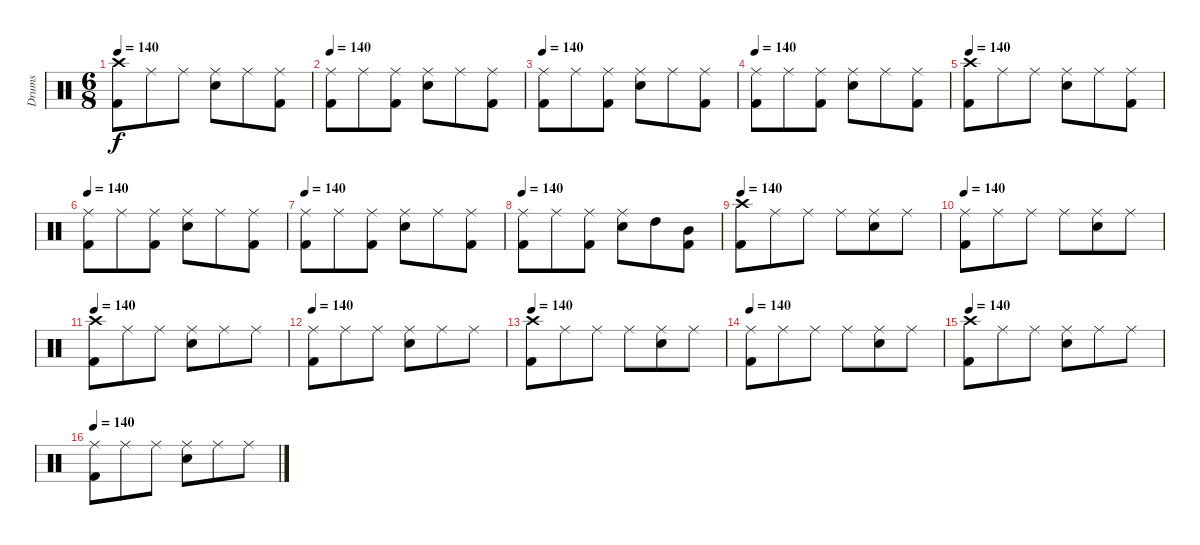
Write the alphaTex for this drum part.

\track ("Drums" "Drums") {instrument percussion}
\staff {score}
\articulation defaults
\ts (6 8)
\tempo 140
\clef neutral
\ks c
("Kick (hit) 2" "Crash high (hit)").8{dy f} "Ride (middle)".8 "Ride (middle)".8 ("Electric Snare (hit)" "Ride (middle)").8 "Ride (middle)".8 ("Kick (hit) 2" "Ride (middle)").8 |
\tempo 140
("Kick (hit) 2" "Ride (middle)").8 "Ride (middle)".8 ("Kick (hit) 2" "Ride (middle)").8 ("Electric Snare (hit)" "Ride (middle)").8 "Ride (middle)".8 ("Kick (hit) 2" "Ride (middle)").8 |
\tempo 140
("Kick (hit) 2" "Ride (middle)").8 "Ride (middle)".8 ("Kick (hit) 2" "Ride (middle)").8 ("Electric Snare (hit)" "Ride (middle)").8 "Ride (middle)".8 ("Kick (hit) 2" "Ride (middle)").8 |
\tempo 140
("Kick (hit) 2" "Ride (middle)").8 "Ride (middle)".8 ("Kick (hit) 2" "Ride (middle)").8 ("Electric Snare (hit)" "Ride (middle)").8 "Ride (middle)".8 ("Kick (hit) 2" "Ride (middle)").8 |
\tempo 140
("Kick (hit) 2" "Crash high (hit)").8 "Ride (middle)".8 "Ride (middle)".8 ("Electric Snare (hit)" "Ride (middle)").8 "Ride (middle)".8 ("Kick (hit) 2" "Ride (middle)").8 |
\tempo 140
("Kick (hit) 2" "Ride (middle)").8 "Ride (middle)".8 ("Kick (hit) 2" "Ride (middle)").8 ("Electric Snare (hit)" "Ride (middle)").8 "Ride (middle)".8 ("Kick (hit) 2" "Ride (middle)").8 |
\tempo 140
("Kick (hit) 2" "Ride (middle)").8 "Ride (middle)".8 ("Kick (hit) 2" "Ride (middle)").8 ("Electric Snare (hit)" "Ride (middle)").8 "Ride (middle)".8 ("Kick (hit) 2" "Ride (middle)").8 |
\tempo 140
("Kick (hit) 2" "Ride (middle)").8 "Ride (middle)".8 ("Kick (hit) 2" "Ride (middle)").8 ("Electric Snare (hit)" "Ride (middle)").8 "High Tom (hit)".8 ("Kick (hit) 2" "Mid Tom (hit)").8 |
\tempo 140
("Kick (hit) 2" "Crash high (hit)").8 "Ride (middle)".8 "Ride (middle)".8 "Ride (middle)".8 ("Electric Snare (hit)" "Ride (middle)").8 "Ride (middle)".8 |
\tempo 140
("Kick (hit) 2" "Ride (middle)").8 "Ride (middle)".8 "Ride (middle)".8 "Ride (middle)".8 ("Electric Snare (hit)" "Ride (middle)").8 "Ride (middle)".8 |
\tempo 140
("Kick (hit) 2" "Crash high (hit)").8 "Ride (middle)".8 "Ride (middle)".8 ("Electric Snare (hit)" "Ride (middle)").8 "Ride (middle)".8 "Ride (middle)".8 |
\tempo 140
("Kick (hit) 2" "Ride (middle)").8 "Ride (middle)".8 "Ride (middle)".8 ("Electric Snare (hit)" "Ride (middle)").8 "Ride (middle)".8 "Ride (middle)".8 |
\tempo 140
("Kick (hit) 2" "Crash high (hit)").8 "Ride (middle)".8 "Ride (middle)".8 "Ride (middle)".8 ("Electric Snare (hit)" "Ride (middle)").8 "Ride (middle)".8 |
\tempo 140
("Kick (hit) 2" "Ride (middle)").8 "Ride (middle)".8 "Ride (middle)".8 "Ride (middle)".8 ("Electric Snare (hit)" "Ride (middle)").8 "Ride (middle)".8 |
\tempo 140
("Kick (hit) 2" "Crash high (hit)").8 "Ride (middle)".8 "Ride (middle)".8 ("Electric Snare (hit)" "Ride (middle)").8 "Ride (middle)".8 "Ride (middle)".8 |
\tempo 140
("Kick (hit) 2" "Ride (middle)").8 "Ride (middle)".8 "Ride (middle)".8 ("Electric Snare (hit)" "Ride (middle)").8 "Ride (middle)".8 "Ride (middle)".8
